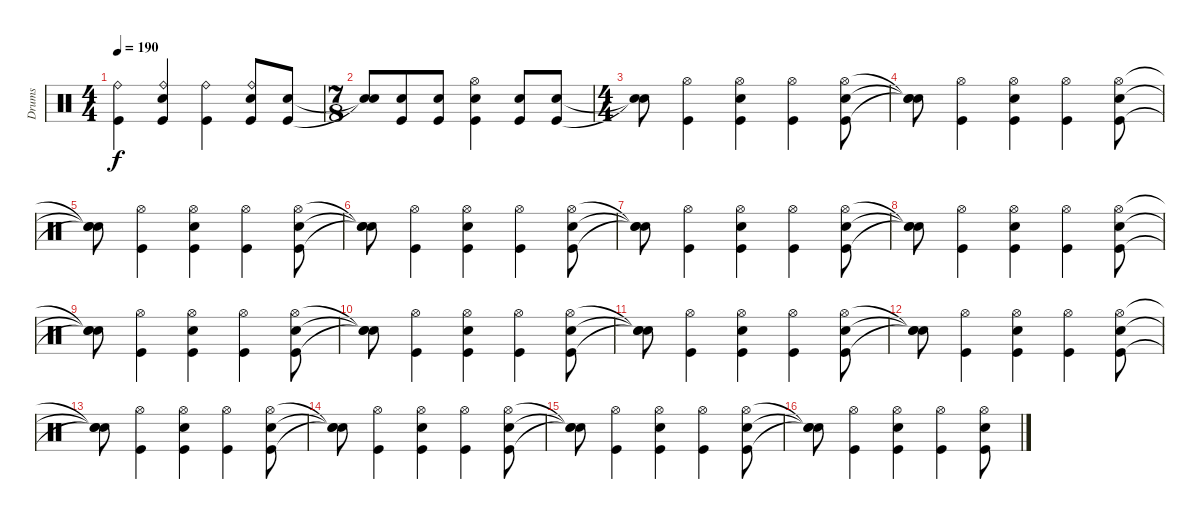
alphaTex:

\track ("Drums" "Drums") {instrument percussion}
\staff {score}
\articulation defaults
\ts (4 4)
\tempo 190
\clef neutral
\ks c
("Kick (hit)" "Ride (bell)").4{dy f} ("Kick (hit)" "Snare (hit) 2" "Ride (bell)").4 ("Kick (hit)" "Ride (bell)").4 ("Kick (hit)" "Snare (hit) 2" "Ride (bell)").8 ("Kick (hit)" "Snare (hit) 2").8 |
\ts (7 8)
("Snare (hit)"{t} "Snare (hit)"{t}).8 ("Kick (hit)" "Snare (hit) 2").8 ("Kick (hit)" "Snare (hit) 2").8 ("Kick (hit)" "Snare (hit) 2" "Hi-Hat (open)").4 ("Kick (hit)" "Snare (hit) 2").8 ("Kick (hit)" "Snare (hit) 2").8 |
\ts (4 4)
("Snare (hit)"{t} "Snare (hit)"{t}).8 ("Kick (hit)" "Hi-Hat (open)").4 ("Kick (hit)" "Snare (hit) 2" "Hi-Hat (open)").4 ("Kick (hit)" "Hi-Hat (open)").4 ("Kick (hit)" "Snare (hit) 2" "Hi-Hat (open)").8 |
("Snare (hit)"{t} "Snare (hit)"{t} "Snare (hit)"{t}).8 ("Kick (hit)" "Hi-Hat (open)").4 ("Kick (hit)" "Snare (hit) 2" "Hi-Hat (open)").4 ("Kick (hit)" "Hi-Hat (open)").4 ("Kick (hit)" "Snare (hit) 2" "Hi-Hat (open)").8 |
("Snare (hit)"{t} "Snare (hit)"{t} "Snare (hit)"{t}).8 ("Kick (hit)" "Hi-Hat (open)").4 ("Kick (hit)" "Snare (hit) 2" "Hi-Hat (open)").4 ("Kick (hit)" "Hi-Hat (open)").4 ("Kick (hit)" "Snare (hit) 2" "Hi-Hat (open)").8 |
("Snare (hit)"{t} "Snare (hit)"{t} "Snare (hit)"{t}).8 ("Kick (hit)" "Hi-Hat (open)").4 ("Kick (hit)" "Snare (hit) 2" "Hi-Hat (open)").4 ("Kick (hit)" "Hi-Hat (open)").4 ("Kick (hit)" "Snare (hit) 2" "Hi-Hat (open)").8 |
("Snare (hit)"{t} "Snare (hit)"{t} "Snare (hit)"{t}).8 ("Kick (hit)" "Hi-Hat (open)").4 ("Kick (hit)" "Snare (hit) 2" "Hi-Hat (open)").4 ("Kick (hit)" "Hi-Hat (open)").4 ("Kick (hit)" "Snare (hit) 2" "Hi-Hat (open)").8 |
("Snare (hit)"{t} "Snare (hit)"{t} "Snare (hit)"{t}).8 ("Kick (hit)" "Hi-Hat (open)").4 ("Kick (hit)" "Snare (hit) 2" "Hi-Hat (open)").4 ("Kick (hit)" "Hi-Hat (open)").4 ("Kick (hit)" "Snare (hit) 2" "Hi-Hat (open)").8 |
("Snare (hit)"{t} "Snare (hit)"{t} "Snare (hit)"{t}).8 ("Kick (hit)" "Hi-Hat (open)").4 ("Kick (hit)" "Snare (hit) 2" "Hi-Hat (open)").4 ("Kick (hit)" "Hi-Hat (open)").4 ("Kick (hit)" "Snare (hit) 2" "Hi-Hat (open)").8 |
("Snare (hit)"{t} "Snare (hit)"{t} "Snare (hit)"{t}).8 ("Kick (hit)" "Hi-Hat (open)").4 ("Kick (hit)" "Snare (hit) 2" "Hi-Hat (open)").4 ("Kick (hit)" "Hi-Hat (open)").4 ("Kick (hit)" "Snare (hit) 2" "Hi-Hat (open)").8 |
("Snare (hit)"{t} "Snare (hit)"{t} "Snare (hit)"{t}).8 ("Kick (hit)" "Hi-Hat (open)").4 ("Kick (hit)" "Snare (hit) 2" "Hi-Hat (open)").4 ("Kick (hit)" "Hi-Hat (open)").4 ("Kick (hit)" "Snare (hit) 2" "Hi-Hat (open)").8 |
("Snare (hit)"{t} "Snare (hit)"{t} "Snare (hit)"{t}).8 ("Kick (hit)" "Hi-Hat (open)").4 ("Kick (hit)" "Snare (hit) 2" "Hi-Hat (open)").4 ("Kick (hit)" "Hi-Hat (open)").4 ("Kick (hit)" "Snare (hit) 2" "Hi-Hat (open)").8 |
("Snare (hit)"{t} "Snare (hit)"{t} "Snare (hit)"{t}).8 ("Kick (hit)" "Hi-Hat (open)").4 ("Kick (hit)" "Snare (hit) 2" "Hi-Hat (open)").4 ("Kick (hit)" "Hi-Hat (open)").4 ("Kick (hit)" "Snare (hit) 2" "Hi-Hat (open)").8 |
("Snare (hit)"{t} "Snare (hit)"{t} "Snare (hit)"{t}).8 ("Kick (hit)" "Hi-Hat (open)").4 ("Kick (hit)" "Snare (hit) 2" "Hi-Hat (open)").4 ("Kick (hit)" "Hi-Hat (open)").4 ("Kick (hit)" "Snare (hit) 2" "Hi-Hat (open)").8 |
("Snare (hit)"{t} "Snare (hit)"{t} "Snare (hit)"{t}).8 ("Kick (hit)" "Hi-Hat (open)").4 ("Kick (hit)" "Snare (hit) 2" "Hi-Hat (open)").4 ("Kick (hit)" "Hi-Hat (open)").4 ("Kick (hit)" "Snare (hit) 2" "Hi-Hat (open)").8 |
("Snare (hit)"{t} "Snare (hit)"{t} "Snare (hit)"{t}).8 ("Kick (hit)" "Hi-Hat (open)").4 ("Kick (hit)" "Snare (hit) 2" "Hi-Hat (open)").4 ("Kick (hit)" "Hi-Hat (open)").4 ("Kick (hit)" "Snare (hit) 2" "Hi-Hat (open)").8
